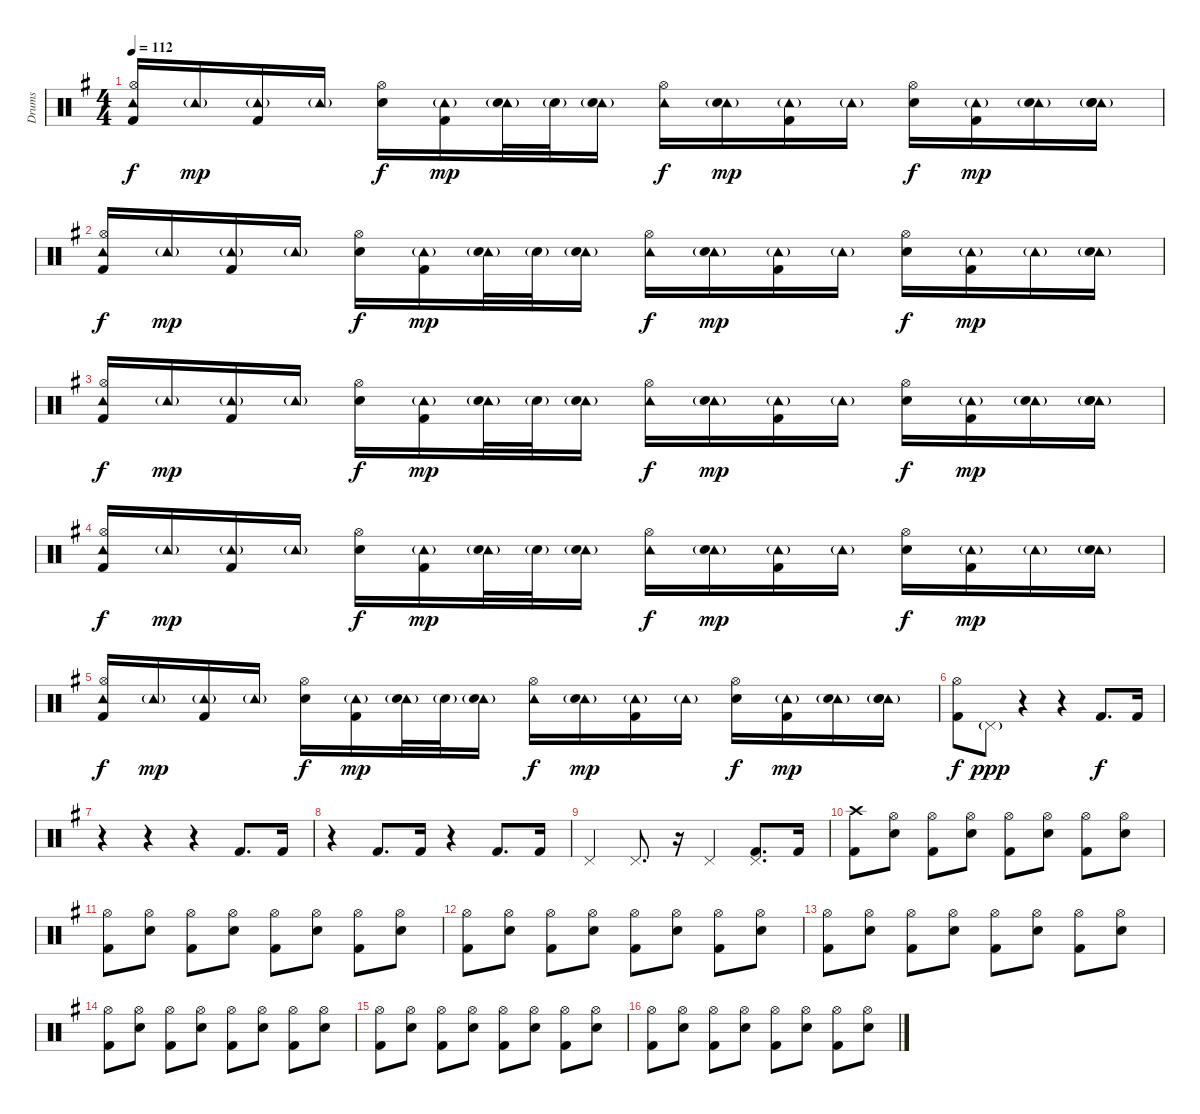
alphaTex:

\track ("Drums" "Drums") {instrument percussion}
\staff {score}
\articulation defaults
\ts (4 4)
\tempo 112
\clef neutral
\ks g
("Tambourine (hit)" "Hi-Hat (open)" "Kick (hit) 2").16{dy f} "Tambourine (hit)"{g}.16{dy mp} ("Tambourine (hit)"{g} "Kick (hit) 2").16 "Tambourine (hit)"{g}.16 ("Hi-Hat (open)" "Snare (hit) 2").16{dy f} ("Tambourine (hit)"{g} "Kick (hit) 2").16{dy mp} ("Tambourine (hit)"{g} "Electric Snare (hit)"{g}).32 "Electric Snare (hit)"{g}.32 ("Tambourine (hit)"{g} "Electric Snare (hit)").16 ("Tambourine (hit)" "Hi-Hat (open)").16{dy f} ("Tambourine (hit)"{g} "Electric Snare (hit)").16{dy mp} ("Tambourine (hit)"{g} "Kick (hit) 2").16 "Tambourine (hit)"{g}.16 ("Hi-Hat (open)" "Snare (hit) 2").16{dy f} ("Tambourine (hit)"{g} "Kick (hit) 2").16{dy mp} ("Tambourine (hit)"{g} "Electric Snare (hit)").16 ("Tambourine (hit)"{g} "Hand Clap (hit)" "Electric Snare (hit)").16 |
("Tambourine (hit)" "Hi-Hat (open)" "Kick (hit) 2").16{dy f} "Tambourine (hit)"{g}.16{dy mp} ("Tambourine (hit)"{g} "Kick (hit) 2").16 "Tambourine (hit)"{g}.16 ("Hi-Hat (open)" "Snare (hit) 2").16{dy f} ("Tambourine (hit)"{g} "Kick (hit) 2").16{dy mp} ("Tambourine (hit)"{g} "Electric Snare (hit)"{g}).32 "Electric Snare (hit)"{g}.32 ("Tambourine (hit)"{g} "Electric Snare (hit)").16 ("Tambourine (hit)" "Hi-Hat (open)").16{dy f} ("Tambourine (hit)"{g} "Electric Snare (hit)").16{dy mp} ("Tambourine (hit)"{g} "Kick (hit) 2").16 "Tambourine (hit)"{g}.16 ("Hi-Hat (open)" "Snare (hit) 2").16{dy f} ("Tambourine (hit)"{g} "Kick (hit) 2").16{dy mp} "Tambourine (hit)"{g}.16 ("Tambourine (hit)"{g} "Electric Snare (hit)").16 |
("Tambourine (hit)" "Hi-Hat (open)" "Kick (hit) 2").16{dy f} "Tambourine (hit)"{g}.16{dy mp} ("Tambourine (hit)"{g} "Kick (hit) 2").16 "Tambourine (hit)"{g}.16 ("Hi-Hat (open)" "Snare (hit) 2").16{dy f} ("Tambourine (hit)"{g} "Kick (hit) 2").16{dy mp} ("Tambourine (hit)"{g} "Electric Snare (hit)"{g}).32 "Electric Snare (hit)"{g}.32 ("Tambourine (hit)"{g} "Electric Snare (hit)").16 ("Tambourine (hit)" "Hi-Hat (open)").16{dy f} ("Tambourine (hit)"{g} "Electric Snare (hit)").16{dy mp} ("Tambourine (hit)"{g} "Kick (hit) 2").16 "Tambourine (hit)"{g}.16 ("Hi-Hat (open)" "Snare (hit) 2").16{dy f} ("Tambourine (hit)"{g} "Kick (hit) 2").16{dy mp} ("Tambourine (hit)"{g} "Electric Snare (hit)").16 ("Tambourine (hit)"{g} "Hand Clap (hit)" "Electric Snare (hit)").16 |
("Tambourine (hit)" "Hi-Hat (open)" "Kick (hit) 2").16{dy f} "Tambourine (hit)"{g}.16{dy mp} ("Tambourine (hit)"{g} "Kick (hit) 2").16 "Tambourine (hit)"{g}.16 ("Hi-Hat (open)" "Snare (hit) 2").16{dy f} ("Tambourine (hit)"{g} "Kick (hit) 2").16{dy mp} ("Tambourine (hit)"{g} "Electric Snare (hit)"{g}).32 "Electric Snare (hit)"{g}.32 ("Tambourine (hit)"{g} "Electric Snare (hit)").16 ("Tambourine (hit)" "Hi-Hat (open)").16{dy f} ("Tambourine (hit)"{g} "Electric Snare (hit)").16{dy mp} ("Tambourine (hit)"{g} "Kick (hit) 2").16 "Tambourine (hit)"{g}.16 ("Hi-Hat (open)" "Snare (hit) 2").16{dy f} ("Tambourine (hit)"{g} "Kick (hit) 2").16{dy mp} "Tambourine (hit)"{g}.16 ("Tambourine (hit)"{g} "Electric Snare (hit)").16 |
("Tambourine (hit)" "Hi-Hat (open)" "Kick (hit) 2").16{dy f} "Tambourine (hit)"{g}.16{dy mp} ("Tambourine (hit)"{g} "Kick (hit) 2").16 "Tambourine (hit)"{g}.16 ("Hi-Hat (open)" "Snare (hit) 2").16{dy f} ("Tambourine (hit)"{g} "Kick (hit) 2").16{dy mp} ("Tambourine (hit)"{g} "Electric Snare (hit)"{g}).32 "Electric Snare (hit)"{g}.32 ("Tambourine (hit)"{g} "Electric Snare (hit)").16 ("Tambourine (hit)" "Hi-Hat (open)").16{dy f} ("Tambourine (hit)"{g} "Electric Snare (hit)").16{dy mp} ("Tambourine (hit)"{g} "Kick (hit) 2").16 "Tambourine (hit)"{g}.16 ("Hi-Hat (open)" "Snare (hit) 2").16{dy f} ("Tambourine (hit)"{g} "Kick (hit) 2").16{dy mp} ("Tambourine (hit)"{g} "Electric Snare (hit)").16 ("Tambourine (hit)"{g} "Hand Clap (hit)" "Electric Snare (hit)").16 |
("Hi-Hat (open)" "Kick (hit) 2").8{dy f} "Pedal Hi-Hat (hit)"{g}.8{dy ppp} r.4 r.4 "Kick (hit) 2".8{d dy f} "Kick (hit) 2".16 |
r.4 r.4 r.4 "Kick (hit) 2".8{d} "Kick (hit) 2".16 |
r.4 "Kick (hit) 2".8{d} "Kick (hit) 2".16 r.4 "Kick (hit) 2".8{d} "Kick (hit) 2".16 |
"Pedal Hi-Hat (hit)".4 "Pedal Hi-Hat (hit)".8{d} r.16 "Pedal Hi-Hat (hit)".4 ("Pedal Hi-Hat (hit)" "Kick (hit) 2").8{d} "Kick (hit) 2".16 |
("Crash high (hit)" "Kick (hit) 2").8 ("Hi-Hat (open)" "Electric Snare (hit)").8 ("Hi-Hat (open)" "Kick (hit) 2").8 ("Hi-Hat (open)" "Electric Snare (hit)").8 ("Hi-Hat (open)" "Kick (hit) 2").8 ("Hi-Hat (open)" "Electric Snare (hit)").8 ("Hi-Hat (open)" "Kick (hit) 2").8 ("Hi-Hat (open)" "Electric Snare (hit)").8 |
("Hi-Hat (open)" "Kick (hit) 2").8 ("Hi-Hat (open)" "Electric Snare (hit)").8 ("Hi-Hat (open)" "Kick (hit) 2").8 ("Hi-Hat (open)" "Electric Snare (hit)").8 ("Hi-Hat (open)" "Kick (hit) 2").8 ("Hi-Hat (open)" "Electric Snare (hit)").8 ("Hi-Hat (open)" "Kick (hit) 2").8 ("Hi-Hat (open)" "Electric Snare (hit)").8 |
("Hi-Hat (open)" "Kick (hit) 2").8 ("Hi-Hat (open)" "Electric Snare (hit)").8 ("Hi-Hat (open)" "Kick (hit) 2").8 ("Hi-Hat (open)" "Electric Snare (hit)").8 ("Hi-Hat (open)" "Kick (hit) 2").8 ("Hi-Hat (open)" "Electric Snare (hit)").8 ("Hi-Hat (open)" "Kick (hit) 2").8 ("Hi-Hat (open)" "Electric Snare (hit)").8 |
("Hi-Hat (open)" "Kick (hit) 2").8 ("Hi-Hat (open)" "Electric Snare (hit)").8 ("Hi-Hat (open)" "Kick (hit) 2").8 ("Hi-Hat (open)" "Electric Snare (hit)").8 ("Hi-Hat (open)" "Kick (hit) 2").8 ("Hi-Hat (open)" "Electric Snare (hit)").8 ("Hi-Hat (open)" "Kick (hit) 2").8 ("Hi-Hat (open)" "Electric Snare (hit)").8 |
("Hi-Hat (open)" "Kick (hit) 2").8 ("Hi-Hat (open)" "Electric Snare (hit)").8 ("Hi-Hat (open)" "Kick (hit) 2").8 ("Hi-Hat (open)" "Electric Snare (hit)").8 ("Hi-Hat (open)" "Kick (hit) 2").8 ("Hi-Hat (open)" "Electric Snare (hit)").8 ("Hi-Hat (open)" "Kick (hit) 2").8 ("Hi-Hat (open)" "Electric Snare (hit)").8 |
("Hi-Hat (open)" "Kick (hit) 2").8 ("Hi-Hat (open)" "Electric Snare (hit)").8 ("Hi-Hat (open)" "Kick (hit) 2").8 ("Hi-Hat (open)" "Electric Snare (hit)").8 ("Hi-Hat (open)" "Kick (hit) 2").8 ("Hi-Hat (open)" "Electric Snare (hit)").8 ("Hi-Hat (open)" "Kick (hit) 2").8 ("Hi-Hat (open)" "Electric Snare (hit)").8 |
("Hi-Hat (open)" "Kick (hit) 2").8 ("Hi-Hat (open)" "Electric Snare (hit)").8 ("Hi-Hat (open)" "Kick (hit) 2").8 ("Hi-Hat (open)" "Electric Snare (hit)").8 ("Hi-Hat (open)" "Kick (hit) 2").8 ("Hi-Hat (open)" "Electric Snare (hit)").8 ("Hi-Hat (open)" "Kick (hit) 2").8 ("Hi-Hat (open)" "Electric Snare (hit)").8
